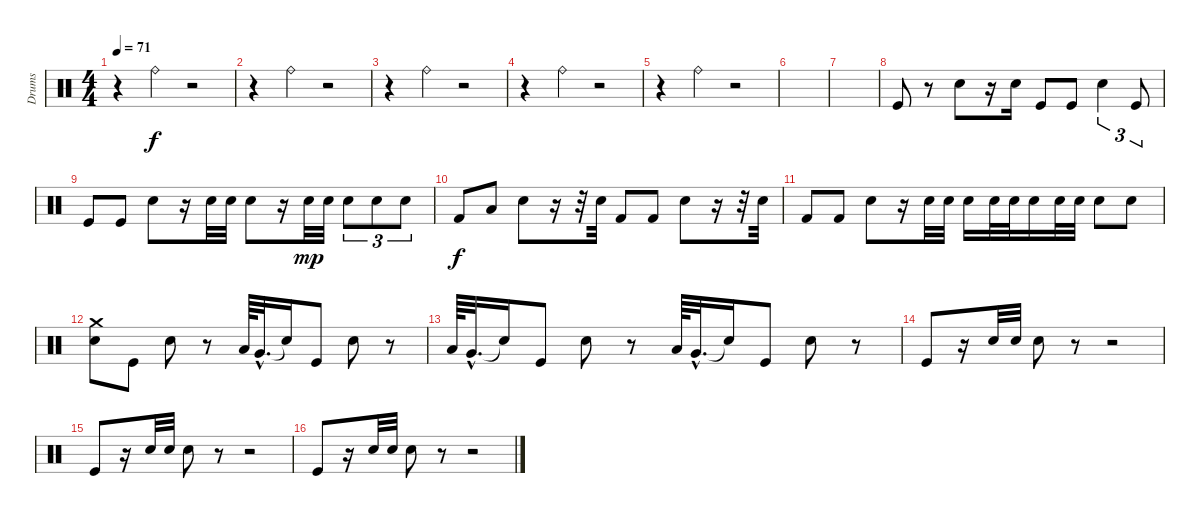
\track ("Drums" "Drums") {instrument percussion}
\staff {score}
\articulation defaults
\ts (4 4)
\tempo 71
\clef neutral
\ks c
r.4{dy f} "Ride (bell)".4 r.2 |
r.4 "Ride (bell)".4 r.2 |
r.4 "Ride (bell)".4 r.2 |
r.4 "Ride (bell)".4 r.2 |
r.4 "Ride (bell)".4 r.2 |
|
|
"Kick (hit)".8 r.8 "Electric Snare (hit)".8 r.16 "Electric Snare (hit)".16 "Kick (hit)".8 "Kick (hit)".8 "Electric Snare (hit)".4{tu (3 2)} "Kick (hit)".8{tu (3 2)} |
"Kick (hit)".8 "Kick (hit)".8 "Electric Snare (hit)".8 r.16 "Snare (hit) 2".32 "Electric Snare (hit)".32 "Snare (hit) 2".8 r.16 "Snare (hit) 2".32{dy mp} "Electric Snare (hit)".32 "Snare (hit) 2".8{tu (3 2)} "Snare (hit) 2".8{tu (3 2)} "Snare (hit) 2".8{tu (3 2)} |
"Kick (hit) 2".8{dy f} "Low Floor Tom (hit)".8 "Electric Snare (hit)".8 r.16 r.32 "Snare (hit) 2".32 "Kick (hit) 2".8 "Kick (hit) 2".8 "Electric Snare (hit)".8 r.16 r.32 "Snare (hit) 2".32 |
"Kick (hit) 2".8 "Kick (hit) 2".8 "Electric Snare (hit)".8 r.16 "Snare (hit) 2".32 "Snare (hit) 2".32 "Electric Snare (hit)".16 "Snare (hit) 2".32 "Snare (hit) 2".32 "Electric Snare (hit)".16 "Snare (hit) 2".32 "Snare (hit) 2".32 "Electric Snare (hit)".8 "Electric Snare (hit)".8 |
("Crash medium (hit)" "Electric Snare (hit)").8 "Kick (hit)".8 "Electric Snare (hit)".8 r.8 "Low Floor Tom (hit)".64 "Very Low Tom (hit)"{hac}.32{d} "Snare (hit)"{t}.16 "Kick (hit)".8 "Electric Snare (hit)".8 r.8 |
"Low Floor Tom (hit)".64 "Very Low Tom (hit)"{hac}.32{d} "Snare (hit)"{t}.16 "Kick (hit)".8 "Electric Snare (hit)".8 r.8 "Low Floor Tom (hit)".64 "Very Low Tom (hit)"{hac}.32{d} "Snare (hit)"{t}.16 "Kick (hit)".8 "Electric Snare (hit)".8 r.8 |
"Kick (hit)".8 r.16 "Electric Snare (hit)".32 "Snare (hit) 2".32 "Snare (hit) 2".8 r.8 r.2 |
"Kick (hit)".8 r.16 "Electric Snare (hit)".32 "Snare (hit) 2".32 "Snare (hit) 2".8 r.8 r.2 |
"Kick (hit)".8 r.16 "Electric Snare (hit)".32 "Snare (hit) 2".32 "Snare (hit) 2".8 r.8 r.2
